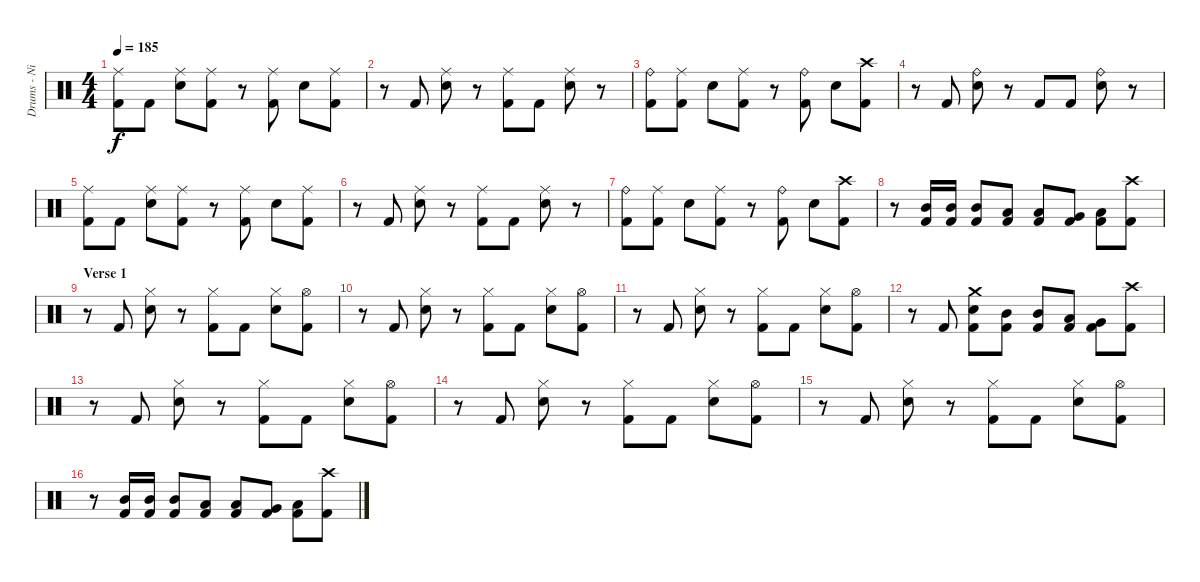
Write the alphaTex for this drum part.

\track ("Drums - Nicko" "Drums - Ni") {instrument percussion}
\staff {score}
\articulation defaults
\ts (4 4)
\tempo 185
\clef neutral
\ks c
("Ride (middle)" "Kick (hit) 2").8{dy f} "Kick (hit) 2".8 ("Ride (middle)" "Snare (hit) 2").8 ("Ride (middle)" "Kick (hit) 2").8 r.8 ("Ride (middle)" "Kick (hit) 2").8 "Snare (hit) 2".8 ("Ride (middle)" "Kick (hit) 2").8 |
r.8 "Kick (hit) 2".8 ("Ride (middle)" "Snare (hit) 2").8 r.8 ("Ride (middle)" "Kick (hit) 2").8 "Kick (hit) 2".8 ("Ride (middle)" "Snare (hit) 2").8 r.8 |
("Ride (bell)" "Kick (hit) 2").8 ("Ride (middle)" "Kick (hit) 2").8 "Snare (hit) 2".8 ("Ride (middle)" "Kick (hit) 2").8 r.8 ("Ride (bell)" "Kick (hit) 2").8 "Snare (hit) 2".8 ("Crash high (hit)" "Kick (hit) 2").8 |
r.8 "Kick (hit) 2".8 ("Ride (bell)" "Snare (hit) 2").8 r.8 "Kick (hit) 2".8 "Kick (hit) 2".8 ("Ride (bell)" "Snare (hit) 2").8 r.8 |
("Ride (middle)" "Kick (hit) 2").8 "Kick (hit) 2".8 ("Ride (middle)" "Snare (hit) 2").8 ("Ride (middle)" "Kick (hit) 2").8 r.8 ("Ride (middle)" "Kick (hit) 2").8 "Snare (hit) 2".8 ("Ride (middle)" "Kick (hit) 2").8 |
r.8 "Kick (hit) 2".8 ("Ride (middle)" "Snare (hit) 2").8 r.8 ("Ride (middle)" "Kick (hit) 2").8 "Kick (hit) 2".8 ("Ride (middle)" "Snare (hit) 2").8 r.8 |
("Ride (bell)" "Kick (hit) 2").8 ("Ride (middle)" "Kick (hit) 2").8 "Snare (hit) 2".8 ("Ride (middle)" "Kick (hit) 2").8 r.8 ("Ride (bell)" "Kick (hit) 2").8 "Snare (hit) 2".8 ("Crash high (hit)" "Kick (hit) 2").8 |
r.8 ("Mid Tom (hit)" "Kick (hit) 2").16 ("Mid Tom (hit)" "Kick (hit) 2").16 ("Mid Tom (hit)" "Kick (hit) 2").8 ("Low Tom (hit)" "Kick (hit) 2").8 ("Low Tom (hit)" "Kick (hit) 2").8 ("Very Low Tom (hit)" "Kick (hit) 2").8 ("Low Floor Tom (hit)" "Kick (hit) 2").8 ("Crash high (hit)" "Kick (hit) 2").8 |
\section ("" "Verse 1")
r.8 "Kick (hit) 2".8 ("Hi-Hat (closed)" "Snare (hit) 2").8 r.8 ("Hi-Hat (closed)" "Kick (hit) 2").8 "Kick (hit) 2".8 ("Hi-Hat (closed)" "Snare (hit) 2").8 ("Hi-Hat (open)" "Kick (hit) 2").8 |
r.8 "Kick (hit) 2".8 ("Hi-Hat (closed)" "Snare (hit) 2").8 r.8 ("Hi-Hat (closed)" "Kick (hit) 2").8 "Kick (hit) 2".8 ("Hi-Hat (closed)" "Snare (hit) 2").8 ("Hi-Hat (open)" "Kick (hit) 2").8 |
r.8 "Kick (hit) 2".8 ("Hi-Hat (closed)" "Snare (hit) 2").8 r.8 ("Hi-Hat (closed)" "Kick (hit) 2").8 "Kick (hit) 2".8 ("Hi-Hat (closed)" "Snare (hit) 2").8 ("Hi-Hat (open)" "Kick (hit) 2").8 |
r.8 "Kick (hit) 2".8 ("Crash medium (hit)" "Snare (hit) 2" "Kick (hit) 2").8 ("Mid Tom (hit)" "Kick (hit) 2").8 ("Mid Tom (hit)" "Kick (hit) 2").8 ("Low Tom (hit)" "Kick (hit) 2").8 ("Very Low Tom (hit)" "Kick (hit) 2").8 ("Crash high (hit)" "Kick (hit) 2").8 |
r.8 "Kick (hit) 2".8 ("Hi-Hat (closed)" "Snare (hit) 2").8 r.8 ("Hi-Hat (closed)" "Kick (hit) 2").8 "Kick (hit) 2".8 ("Hi-Hat (closed)" "Snare (hit) 2").8 ("Hi-Hat (open)" "Kick (hit) 2").8 |
r.8 "Kick (hit) 2".8 ("Hi-Hat (closed)" "Snare (hit) 2").8 r.8 ("Hi-Hat (closed)" "Kick (hit) 2").8 "Kick (hit) 2".8 ("Hi-Hat (closed)" "Snare (hit) 2").8 ("Hi-Hat (open)" "Kick (hit) 2").8 |
r.8 "Kick (hit) 2".8 ("Hi-Hat (closed)" "Snare (hit) 2").8 r.8 ("Hi-Hat (closed)" "Kick (hit) 2").8 "Kick (hit) 2".8 ("Hi-Hat (closed)" "Snare (hit) 2").8 ("Hi-Hat (open)" "Kick (hit) 2").8 |
r.8 ("Mid Tom (hit)" "Kick (hit) 2").16 ("Mid Tom (hit)" "Kick (hit) 2").16 ("Mid Tom (hit)" "Kick (hit) 2").8 ("Low Tom (hit)" "Kick (hit) 2").8 ("Low Tom (hit)" "Kick (hit) 2").8 ("Very Low Tom (hit)" "Kick (hit) 2").8 ("Low Floor Tom (hit)" "Kick (hit) 2").8 ("Crash high (hit)" "Kick (hit) 2").8
